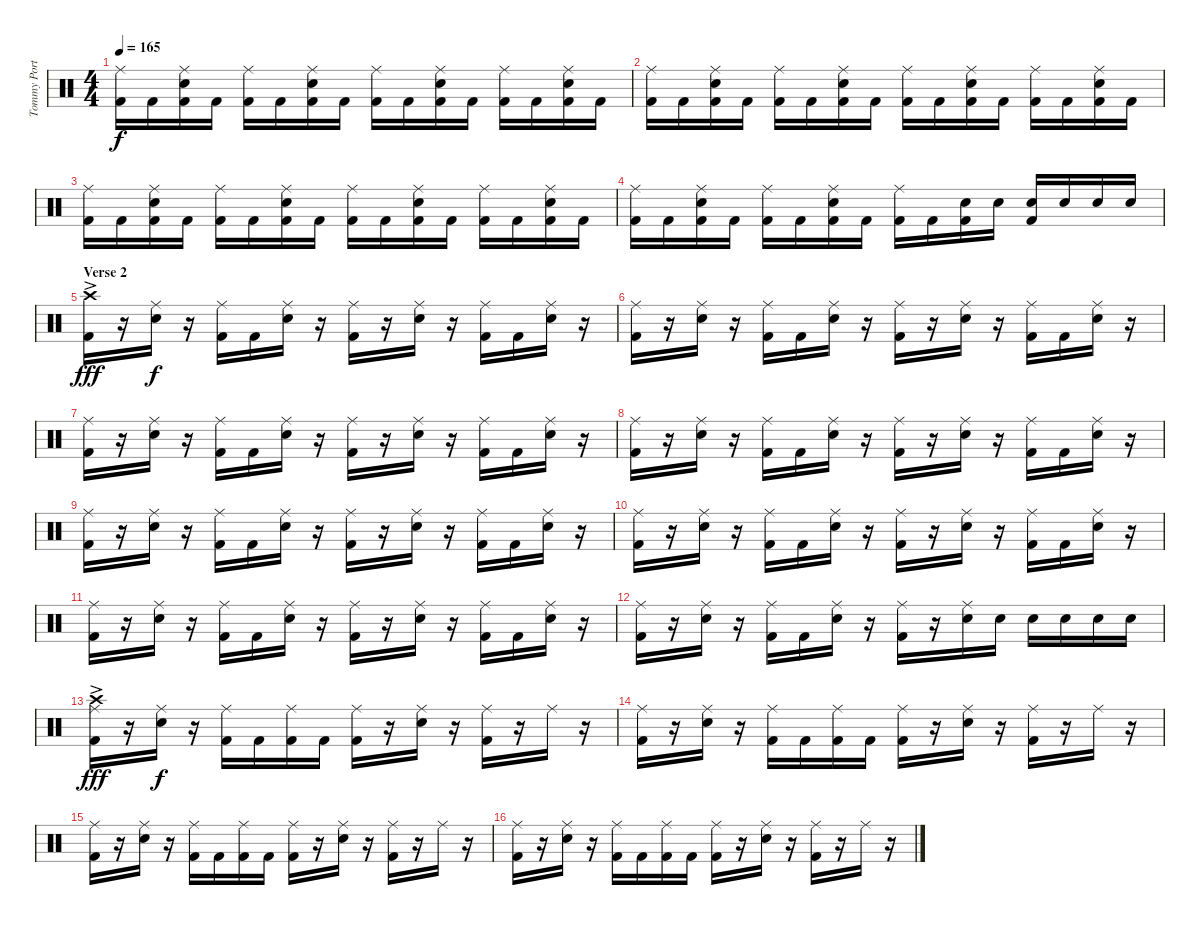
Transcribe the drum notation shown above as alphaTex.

\track ("Tommy Portimo" "Tommy Port") {instrument percussion}
\staff {score}
\articulation defaults
\ts (4 4)
\tempo 165
\clef neutral
\ks aminor
("Ride (middle)" "Kick (hit) 2").16{dy f} "Kick (hit) 2".16 ("Ride (middle)" "Electric Snare (hit)" "Kick (hit) 2").16 "Kick (hit) 2".16 ("Ride (middle)" "Kick (hit) 2").16 "Kick (hit) 2".16 ("Ride (middle)" "Electric Snare (hit)" "Kick (hit) 2").16 "Kick (hit) 2".16 ("Ride (middle)" "Kick (hit) 2").16 "Kick (hit) 2".16 ("Ride (middle)" "Electric Snare (hit)" "Kick (hit) 2").16 "Kick (hit) 2".16 ("Ride (middle)" "Kick (hit) 2").16 "Kick (hit) 2".16 ("Ride (middle)" "Electric Snare (hit)" "Kick (hit) 2").16 "Kick (hit) 2".16 |
("Ride (middle)" "Kick (hit) 2").16 "Kick (hit) 2".16 ("Ride (middle)" "Electric Snare (hit)" "Kick (hit) 2").16 "Kick (hit) 2".16 ("Ride (middle)" "Kick (hit) 2").16 "Kick (hit) 2".16 ("Ride (middle)" "Electric Snare (hit)" "Kick (hit) 2").16 "Kick (hit) 2".16 ("Ride (middle)" "Kick (hit) 2").16 "Kick (hit) 2".16 ("Ride (middle)" "Electric Snare (hit)" "Kick (hit) 2").16 "Kick (hit) 2".16 ("Ride (middle)" "Kick (hit) 2").16 "Kick (hit) 2".16 ("Ride (middle)" "Electric Snare (hit)" "Kick (hit) 2").16 "Kick (hit) 2".16 |
("Ride (middle)" "Kick (hit) 2").16 "Kick (hit) 2".16 ("Ride (middle)" "Electric Snare (hit)" "Kick (hit) 2").16 "Kick (hit) 2".16 ("Ride (middle)" "Kick (hit) 2").16 "Kick (hit) 2".16 ("Ride (middle)" "Electric Snare (hit)" "Kick (hit) 2").16 "Kick (hit) 2".16 ("Ride (middle)" "Kick (hit) 2").16 "Kick (hit) 2".16 ("Ride (middle)" "Electric Snare (hit)" "Kick (hit) 2").16 "Kick (hit) 2".16 ("Ride (middle)" "Kick (hit) 2").16 "Kick (hit) 2".16 ("Ride (middle)" "Electric Snare (hit)" "Kick (hit) 2").16 "Kick (hit) 2".16 |
("Ride (middle)" "Kick (hit) 2").16 "Kick (hit) 2".16 ("Ride (middle)" "Electric Snare (hit)" "Kick (hit) 2").16 "Kick (hit) 2".16 ("Ride (middle)" "Kick (hit) 2").16 "Kick (hit) 2".16 ("Ride (middle)" "Electric Snare (hit)" "Kick (hit) 2").16 "Kick (hit) 2".16 ("Ride (middle)" "Kick (hit) 2").16 "Kick (hit) 2".16 ("Electric Snare (hit)" "Kick (hit) 2").16 "Electric Snare (hit)".16 ("Electric Snare (hit)" "Kick (hit) 2").16 "Electric Snare (hit)".16 "Electric Snare (hit)".16 "Electric Snare (hit)".16 |
\section ("" "Verse 2")
("Crash high (hit)"{ac} "Kick (hit) 2").16{dy fff} r.16 ("Ride (middle)" "Electric Snare (hit)").16{dy f} r.16 ("Ride (middle)" "Kick (hit) 2").16 "Kick (hit) 2".16 ("Ride (middle)" "Electric Snare (hit)").16 r.16 ("Ride (middle)" "Kick (hit) 2").16 r.16 ("Ride (middle)" "Electric Snare (hit)").16 r.16 ("Ride (middle)" "Kick (hit) 2").16 "Kick (hit) 2".16 ("Ride (middle)" "Electric Snare (hit)").16 r.16 |
("Ride (middle)" "Kick (hit) 2").16 r.16 ("Ride (middle)" "Electric Snare (hit)").16 r.16 ("Ride (middle)" "Kick (hit) 2").16 "Kick (hit) 2".16 ("Ride (middle)" "Electric Snare (hit)").16 r.16 ("Ride (middle)" "Kick (hit) 2").16 r.16 ("Ride (middle)" "Electric Snare (hit)").16 r.16 ("Ride (middle)" "Kick (hit) 2").16 "Kick (hit) 2".16 ("Ride (middle)" "Electric Snare (hit)").16 r.16 |
("Ride (middle)" "Kick (hit) 2").16 r.16 ("Ride (middle)" "Electric Snare (hit)").16 r.16 ("Ride (middle)" "Kick (hit) 2").16 "Kick (hit) 2".16 ("Ride (middle)" "Electric Snare (hit)").16 r.16 ("Ride (middle)" "Kick (hit) 2").16 r.16 ("Ride (middle)" "Electric Snare (hit)").16 r.16 ("Ride (middle)" "Kick (hit) 2").16 "Kick (hit) 2".16 ("Ride (middle)" "Electric Snare (hit)").16 r.16 |
("Ride (middle)" "Kick (hit) 2").16 r.16 ("Ride (middle)" "Electric Snare (hit)").16 r.16 ("Ride (middle)" "Kick (hit) 2").16 "Kick (hit) 2".16 ("Ride (middle)" "Electric Snare (hit)").16 r.16 ("Ride (middle)" "Kick (hit) 2").16 r.16 ("Ride (middle)" "Electric Snare (hit)").16 r.16 ("Ride (middle)" "Kick (hit) 2").16 "Kick (hit) 2".16 ("Ride (middle)" "Electric Snare (hit)").16 r.16 |
("Ride (middle)" "Kick (hit) 2").16 r.16 ("Ride (middle)" "Electric Snare (hit)").16 r.16 ("Ride (middle)" "Kick (hit) 2").16 "Kick (hit) 2".16 ("Ride (middle)" "Electric Snare (hit)").16 r.16 ("Ride (middle)" "Kick (hit) 2").16 r.16 ("Ride (middle)" "Electric Snare (hit)").16 r.16 ("Ride (middle)" "Kick (hit) 2").16 "Kick (hit) 2".16 ("Ride (middle)" "Electric Snare (hit)").16 r.16 |
("Ride (middle)" "Kick (hit) 2").16 r.16 ("Ride (middle)" "Electric Snare (hit)").16 r.16 ("Ride (middle)" "Kick (hit) 2").16 "Kick (hit) 2".16 ("Ride (middle)" "Electric Snare (hit)").16 r.16 ("Ride (middle)" "Kick (hit) 2").16 r.16 ("Ride (middle)" "Electric Snare (hit)").16 r.16 ("Ride (middle)" "Kick (hit) 2").16 "Kick (hit) 2".16 ("Ride (middle)" "Electric Snare (hit)").16 r.16 |
("Ride (middle)" "Kick (hit) 2").16 r.16 ("Ride (middle)" "Electric Snare (hit)").16 r.16 ("Ride (middle)" "Kick (hit) 2").16 "Kick (hit) 2".16 ("Ride (middle)" "Electric Snare (hit)").16 r.16 ("Ride (middle)" "Kick (hit) 2").16 r.16 ("Ride (middle)" "Electric Snare (hit)").16 r.16 ("Ride (middle)" "Kick (hit) 2").16 "Kick (hit) 2".16 ("Ride (middle)" "Electric Snare (hit)").16 r.16 |
("Ride (middle)" "Kick (hit) 2").16 r.16 ("Ride (middle)" "Electric Snare (hit)").16 r.16 ("Ride (middle)" "Kick (hit) 2").16 "Kick (hit) 2".16 ("Ride (middle)" "Electric Snare (hit)").16 r.16 ("Ride (middle)" "Kick (hit) 2").16 r.16 ("Ride (middle)" "Electric Snare (hit)").16 "Electric Snare (hit)".16 "Electric Snare (hit)".16 "Electric Snare (hit)".16 "Electric Snare (hit)".16 "Electric Snare (hit)".16 |
("Crash high (hit)"{ac} "Ride (middle)" "Kick (hit) 2").16{dy fff} r.16 ("Ride (middle)" "Electric Snare (hit)").16{dy f} r.16 ("Ride (middle)" "Kick (hit) 2").16 "Kick (hit) 2".16 ("Ride (middle)" "Kick (hit) 2").16 "Kick (hit) 2".16 ("Ride (middle)" "Kick (hit) 2").16 r.16 ("Ride (middle)" "Electric Snare (hit)").16 r.16 ("Ride (middle)" "Kick (hit) 2").16 r.16 "Ride (middle)".16 r.16 |
("Ride (middle)" "Kick (hit) 2").16 r.16 ("Ride (middle)" "Electric Snare (hit)").16 r.16 ("Ride (middle)" "Kick (hit) 2").16 "Kick (hit) 2".16 ("Ride (middle)" "Kick (hit) 2").16 "Kick (hit) 2".16 ("Ride (middle)" "Kick (hit) 2").16 r.16 ("Ride (middle)" "Electric Snare (hit)").16 r.16 ("Ride (middle)" "Kick (hit) 2").16 r.16 "Ride (middle)".16 r.16 |
("Ride (middle)" "Kick (hit) 2").16 r.16 ("Ride (middle)" "Electric Snare (hit)").16 r.16 ("Ride (middle)" "Kick (hit) 2").16 "Kick (hit) 2".16 ("Ride (middle)" "Kick (hit) 2").16 "Kick (hit) 2".16 ("Ride (middle)" "Kick (hit) 2").16 r.16 ("Ride (middle)" "Electric Snare (hit)").16 r.16 ("Ride (middle)" "Kick (hit) 2").16 r.16 "Ride (middle)".16 r.16 |
("Ride (middle)" "Kick (hit) 2").16 r.16 ("Ride (middle)" "Electric Snare (hit)").16 r.16 ("Ride (middle)" "Kick (hit) 2").16 "Kick (hit) 2".16 ("Ride (middle)" "Kick (hit) 2").16 "Kick (hit) 2".16 ("Ride (middle)" "Kick (hit) 2").16 r.16 ("Ride (middle)" "Electric Snare (hit)").16 r.16 ("Ride (middle)" "Kick (hit) 2").16 r.16 "Ride (middle)".16 r.16
